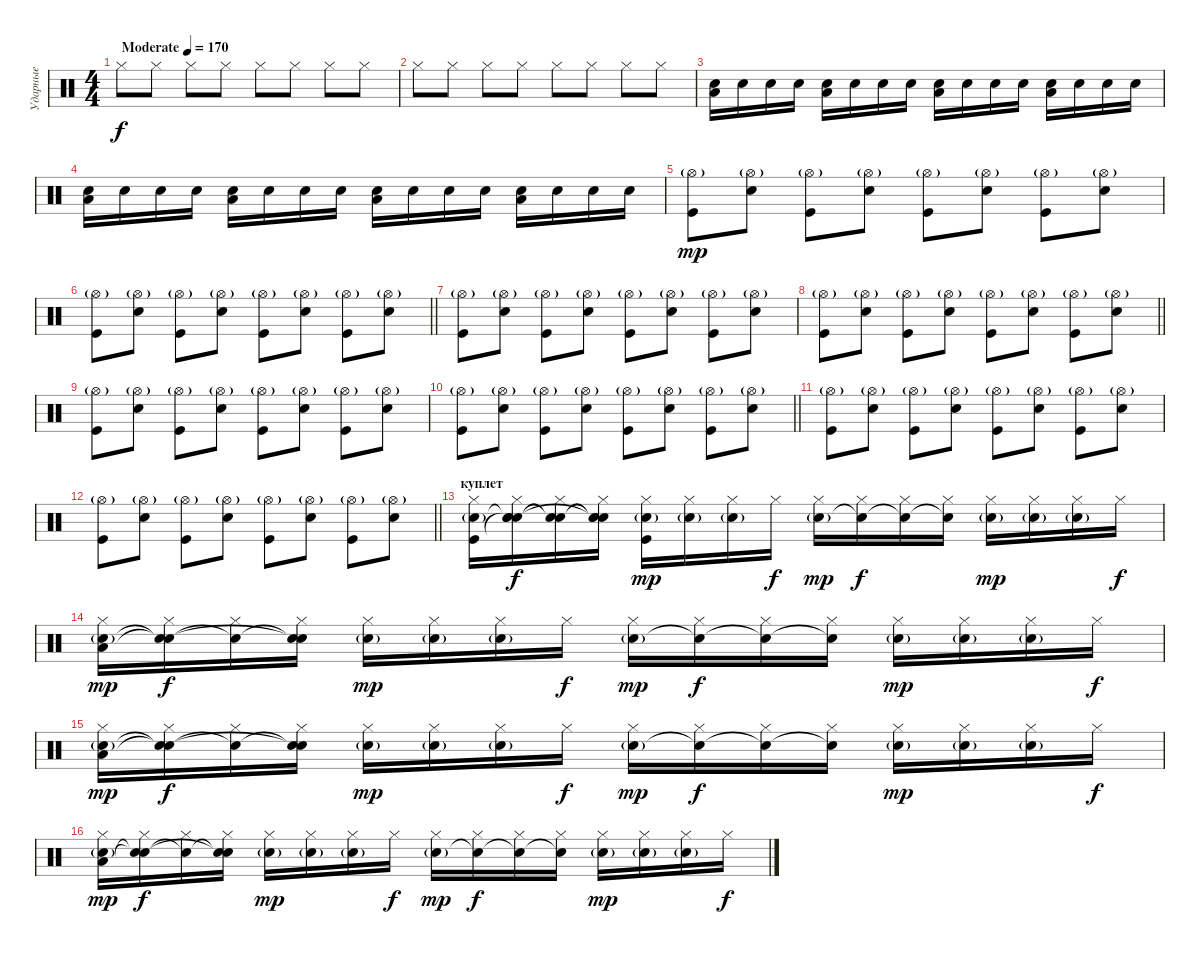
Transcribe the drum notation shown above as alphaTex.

\track ("Ударные" "Ударные") {instrument percussion}
\staff {score}
\articulation defaults
\ts (4 4)
\tempo (170 "Moderate")
\clef neutral
\ks c "Hi-Hat (closed)".8{dy f volume 3} "Hi-Hat (closed)".8{volume 13} "Hi-Hat (closed)".8 "Hi-Hat (closed)".8 "Hi-Hat (closed)".8 "Hi-Hat (closed)".8 "Hi-Hat (closed)".8 "Hi-Hat (closed)".8
|
"Hi-Hat (closed)".8 "Hi-Hat (closed)".8 "Hi-Hat (closed)".8 "Hi-Hat (closed)".8 "Hi-Hat (closed)".8 "Hi-Hat (closed)".8 "Hi-Hat (closed)".8 "Hi-Hat (closed)".8 |
("Snare (hit) 2" "Low Tom (hit)").16 "Snare (hit) 2".16 "Snare (hit) 2".16 "Snare (hit) 2".16 ("Snare (hit) 2" "Low Tom (hit)").16 "Snare (hit) 2".16 "Snare (hit) 2".16 "Snare (hit) 2".16 ("Snare (hit) 2" "Low Tom (hit)").16 "Snare (hit) 2".16 "Snare (hit) 2".16 "Snare (hit) 2".16 ("Snare (hit) 2" "Low Tom (hit)").16 "Snare (hit) 2".16 "Snare (hit) 2".16 "Snare (hit) 2".16 |
("Snare (hit) 2" "Low Tom (hit)").16 "Snare (hit) 2".16 "Snare (hit) 2".16 "Snare (hit) 2".16 ("Snare (hit) 2" "Low Tom (hit)").16 "Snare (hit) 2".16 "Snare (hit) 2".16 "Snare (hit) 2".16 ("Snare (hit) 2" "Low Tom (hit)").16 "Snare (hit) 2".16 "Snare (hit) 2".16 "Snare (hit) 2".16 ("Snare (hit) 2" "Low Tom (hit)").16 "Snare (hit) 2".16 "Snare (hit) 2".16 "Snare (hit) 2".16 |
("Hi-Hat (open)"{g} "Kick (hit)").8{dy mp} ("Hi-Hat (open)"{g} "Snare (hit) 2").8 ("Hi-Hat (open)"{g} "Kick (hit)").8 ("Hi-Hat (open)"{g} "Snare (hit) 2").8 ("Hi-Hat (open)"{g} "Kick (hit)").8 ("Hi-Hat (open)"{g} "Snare (hit) 2").8 ("Hi-Hat (open)"{g} "Kick (hit)").8 ("Hi-Hat (open)"{g} "Snare (hit) 2").8 |
\barLineRight lightlight
("Hi-Hat (open)"{g} "Kick (hit)").8 ("Hi-Hat (open)"{g} "Snare (hit) 2").8 ("Hi-Hat (open)"{g} "Kick (hit)").8 ("Hi-Hat (open)"{g} "Snare (hit) 2").8 ("Hi-Hat (open)"{g} "Kick (hit)").8 ("Hi-Hat (open)"{g} "Snare (hit) 2").8 ("Hi-Hat (open)"{g} "Kick (hit)").8 ("Hi-Hat (open)"{g} "Snare (hit) 2").8 |
("Hi-Hat (open)"{g} "Kick (hit)").8 ("Hi-Hat (open)"{g} "Snare (hit) 2").8 ("Hi-Hat (open)"{g} "Kick (hit)").8 ("Hi-Hat (open)"{g} "Snare (hit) 2").8 ("Hi-Hat (open)"{g} "Kick (hit)").8 ("Hi-Hat (open)"{g} "Snare (hit) 2").8 ("Hi-Hat (open)"{g} "Kick (hit)").8 ("Hi-Hat (open)"{g} "Snare (hit) 2").8 |
\barLineRight lightlight
("Hi-Hat (open)"{g} "Kick (hit)").8 ("Hi-Hat (open)"{g} "Snare (hit) 2").8 ("Hi-Hat (open)"{g} "Kick (hit)").8 ("Hi-Hat (open)"{g} "Snare (hit) 2").8 ("Hi-Hat (open)"{g} "Kick (hit)").8 ("Hi-Hat (open)"{g} "Snare (hit) 2").8 ("Hi-Hat (open)"{g} "Kick (hit)").8 ("Hi-Hat (open)"{g} "Snare (hit) 2").8 |
("Hi-Hat (open)"{g} "Kick (hit)").8 ("Hi-Hat (open)"{g} "Snare (hit) 2").8 ("Hi-Hat (open)"{g} "Kick (hit)").8 ("Hi-Hat (open)"{g} "Snare (hit) 2").8 ("Hi-Hat (open)"{g} "Kick (hit)").8 ("Hi-Hat (open)"{g} "Snare (hit) 2").8 ("Hi-Hat (open)"{g} "Kick (hit)").8 ("Hi-Hat (open)"{g} "Snare (hit) 2").8 |
\barLineRight lightlight
("Hi-Hat (open)"{g} "Kick (hit)").8 ("Hi-Hat (open)"{g} "Snare (hit) 2").8 ("Hi-Hat (open)"{g} "Kick (hit)").8 ("Hi-Hat (open)"{g} "Snare (hit) 2").8 ("Hi-Hat (open)"{g} "Kick (hit)").8 ("Hi-Hat (open)"{g} "Snare (hit) 2").8 ("Hi-Hat (open)"{g} "Kick (hit)").8 ("Hi-Hat (open)"{g} "Snare (hit) 2").8 |
("Hi-Hat (open)"{g} "Kick (hit)").8 ("Hi-Hat (open)"{g} "Snare (hit) 2").8 ("Hi-Hat (open)"{g} "Kick (hit)").8 ("Hi-Hat (open)"{g} "Snare (hit) 2").8 ("Hi-Hat (open)"{g} "Kick (hit)").8 ("Hi-Hat (open)"{g} "Snare (hit) 2").8 ("Hi-Hat (open)"{g} "Kick (hit)").8 ("Hi-Hat (open)"{g} "Snare (hit) 2").8 |
\barLineRight lightlight
("Hi-Hat (open)"{g} "Kick (hit)").8 ("Hi-Hat (open)"{g} "Snare (hit) 2").8 ("Hi-Hat (open)"{g} "Kick (hit)").8 ("Hi-Hat (open)"{g} "Snare (hit) 2").8 ("Hi-Hat (open)"{g} "Kick (hit)").8 ("Hi-Hat (open)"{g} "Snare (hit) 2").8 ("Hi-Hat (open)"{g} "Kick (hit)").8 ("Hi-Hat (open)"{g} "Snare (hit) 2").8 |
\section ("" "куплет")
("Hi-Hat (closed)" "Snare (hit) 2"{g} "Kick (hit)").16 ("Hi-Hat (closed)" "Snare (hit)"{t} "Snare (hit)"{t} "Snare (hit)").16{dy f} ("Hi-Hat (closed)" "Snare (hit)"{t} "Snare (hit)"{t}).16 ("Hi-Hat (closed)" "Snare (hit) 2"{t} "Snare (hit)"{t} "Snare (hit)"{t}).16 ("Hi-Hat (closed)" "Snare (hit) 2"{g} "Kick (hit)").16{dy mp} ("Hi-Hat (closed)" "Snare (hit) 2"{g}).16 ("Hi-Hat (closed)" "Snare (hit) 2"{g}).16 "Hi-Hat (closed)".16{dy f} ("Hi-Hat (closed)" "Snare (hit) 2"{g}).16{dy mp} ("Hi-Hat (closed)" "Snare (hit) 2"{t}).16{dy f} ("Hi-Hat (closed)" "Snare (hit) 2"{t}).16 ("Hi-Hat (closed)" "Snare (hit) 2"{t}).16 ("Hi-Hat (closed)" "Snare (hit) 2"{g}).16{dy mp} ("Hi-Hat (closed)" "Snare (hit) 2"{g}).16 ("Hi-Hat (closed)" "Snare (hit) 2"{g}).16 "Hi-Hat (closed)".16{dy f} |
("Hi-Hat (closed)" "Low Tom (hit)" "Snare (hit) 2"{g}).16{dy mp} ("Hi-Hat (closed)" "Snare (hit)"{t} "Snare (hit)"{t}).16{dy f} ("Hi-Hat (closed)" "Snare (hit)"{t}).16 ("Hi-Hat (closed)" "Snare (hit) 2"{t} "Snare (hit)"{t}).16 ("Hi-Hat (closed)" "Snare (hit) 2"{g}).16{dy mp} ("Hi-Hat (closed)" "Snare (hit) 2"{g}).16 ("Hi-Hat (closed)" "Snare (hit) 2"{g}).16 "Hi-Hat (closed)".16{dy f} ("Hi-Hat (closed)" "Snare (hit) 2"{g}).16{dy mp} ("Hi-Hat (closed)" "Snare (hit) 2"{t}).16{dy f} ("Hi-Hat (closed)" "Snare (hit) 2"{t}).16 ("Hi-Hat (closed)" "Snare (hit) 2"{t}).16 ("Hi-Hat (closed)" "Snare (hit) 2"{g}).16{dy mp} ("Hi-Hat (closed)" "Snare (hit) 2"{g}).16 ("Hi-Hat (closed)" "Snare (hit) 2"{g}).16 "Hi-Hat (closed)".16{dy f} |
("Hi-Hat (closed)" "Low Tom (hit)" "Snare (hit) 2"{g}).16{dy mp} ("Hi-Hat (closed)" "Snare (hit)"{t} "Snare (hit)"{t}).16{dy f} ("Hi-Hat (closed)" "Snare (hit)"{t}).16 ("Hi-Hat (closed)" "Snare (hit) 2"{t} "Snare (hit)"{t}).16 ("Hi-Hat (closed)" "Snare (hit) 2"{g}).16{dy mp} ("Hi-Hat (closed)" "Snare (hit) 2"{g}).16 ("Hi-Hat (closed)" "Snare (hit) 2"{g}).16 "Hi-Hat (closed)".16{dy f} ("Hi-Hat (closed)" "Snare (hit) 2"{g}).16{dy mp} ("Hi-Hat (closed)" "Snare (hit) 2"{t}).16{dy f} ("Hi-Hat (closed)" "Snare (hit) 2"{t}).16 ("Hi-Hat (closed)" "Snare (hit) 2"{t}).16 ("Hi-Hat (closed)" "Snare (hit) 2"{g}).16{dy mp} ("Hi-Hat (closed)" "Snare (hit) 2"{g}).16 ("Hi-Hat (closed)" "Snare (hit) 2"{g}).16 "Hi-Hat (closed)".16{dy f} |
("Hi-Hat (closed)" "Low Tom (hit)" "Snare (hit) 2"{g}).16{dy mp} ("Hi-Hat (closed)" "Snare (hit)"{t} "Snare (hit)"{t}).16{dy f} ("Hi-Hat (closed)" "Snare (hit)"{t}).16 ("Hi-Hat (closed)" "Snare (hit) 2"{t} "Snare (hit)"{t}).16 ("Hi-Hat (closed)" "Snare (hit) 2"{g}).16{dy mp} ("Hi-Hat (closed)" "Snare (hit) 2"{g}).16 ("Hi-Hat (closed)" "Snare (hit) 2"{g}).16 "Hi-Hat (closed)".16{dy f} ("Hi-Hat (closed)" "Snare (hit) 2"{g}).16{dy mp} ("Hi-Hat (closed)" "Snare (hit) 2"{t}).16{dy f} ("Hi-Hat (closed)" "Snare (hit) 2"{t}).16 ("Hi-Hat (closed)" "Snare (hit) 2"{t}).16 ("Hi-Hat (closed)" "Snare (hit) 2"{g}).16{dy mp} ("Hi-Hat (closed)" "Snare (hit) 2"{g}).16 ("Hi-Hat (closed)" "Snare (hit) 2"{g}).16 "Hi-Hat (closed)".16{dy f}
